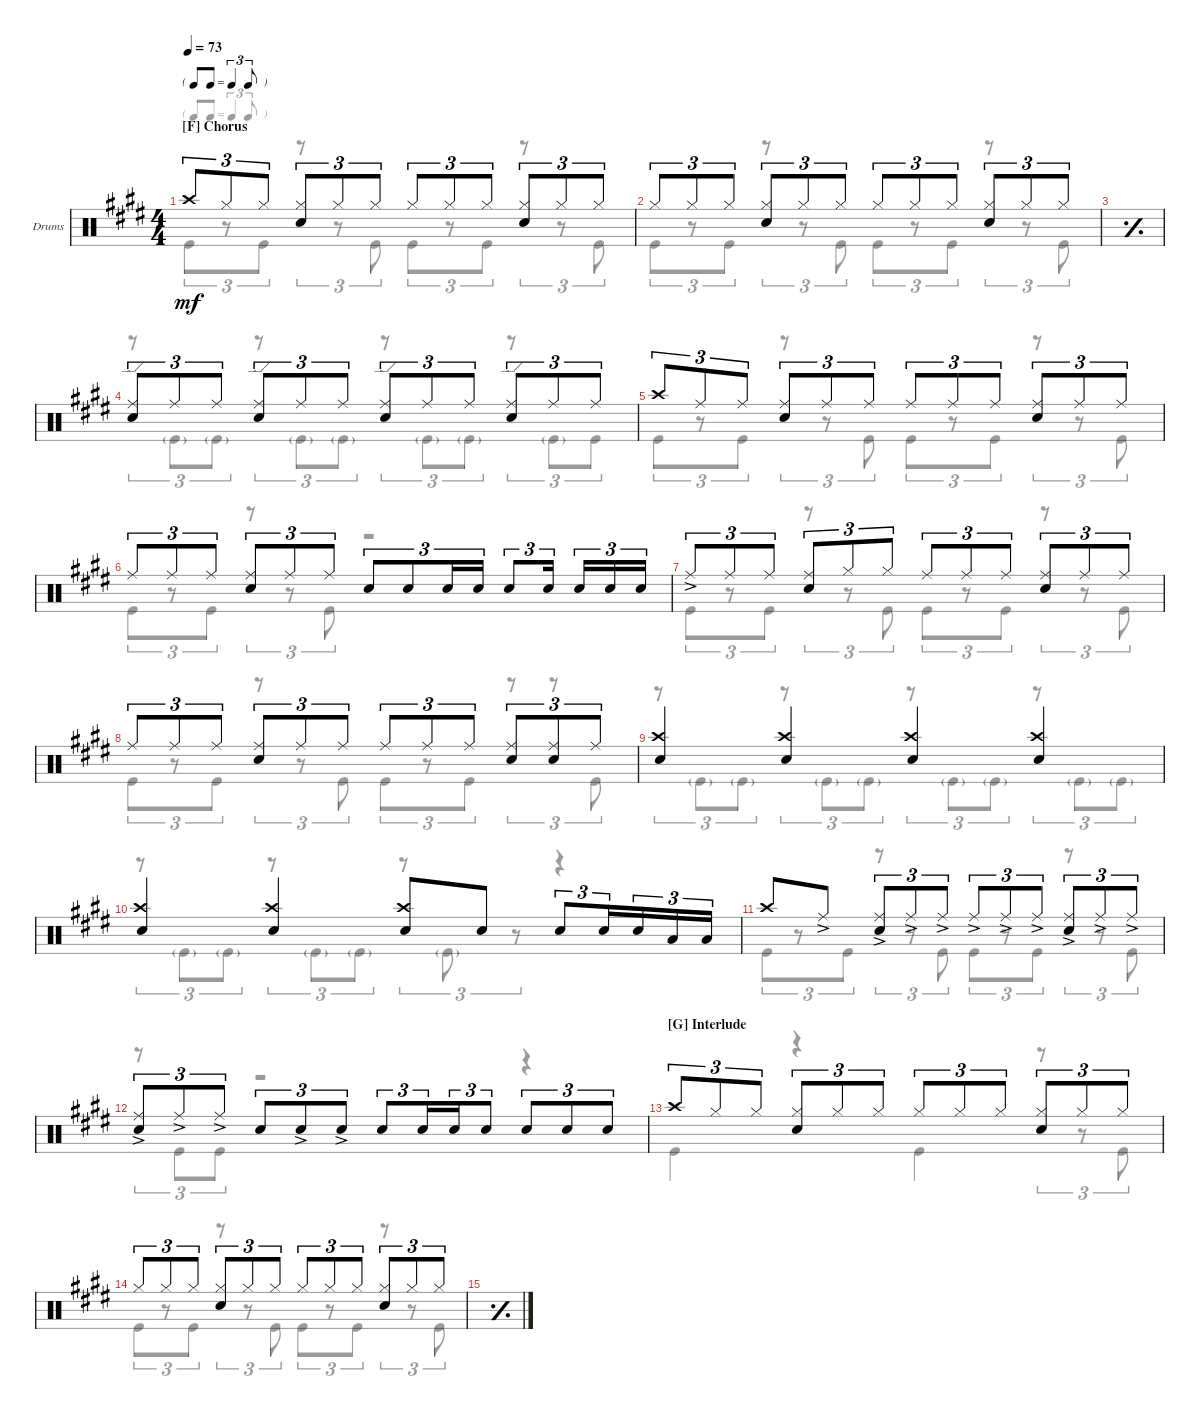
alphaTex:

\defaultSystemsLayout 4
\bracketExtendMode groupsimilarinstruments
\firstSystemTrackNameOrientation horizontal
\otherSystemsTrackNameOrientation horizontal
\track ("Drumkit" "Drums") {instrument percussion}
\staff {score}
\articulation defaults
\voice
\ts (4 4)
\tf triplet8th
\section ("F" "Chorus")
\tempo 73
\clef neutral
\ks e "Crash high (hit)".8{tu (3 2) dy mf} "Hi-Hat (closed)".8{tu (3 2)} "Hi-Hat (closed)".8{tu (3 2)}
("Hi-Hat (closed)" "Snare (hit) 2").8{tu (3 2)} "Hi-Hat (closed)".8{tu (3 2)} "Hi-Hat (closed)".8{tu (3 2)} "Hi-Hat (closed)".8{tu (3 2)} "Hi-Hat (closed)".8{tu (3 2)} "Hi-Hat (closed)".8{tu (3 2)} ("Hi-Hat (closed)" "Snare (hit) 2").8{tu (3 2)} "Hi-Hat (closed)".8{tu (3 2)} "Hi-Hat (closed)".8{tu (3 2)} |
"Hi-Hat (closed)".8{tu (3 2)} "Hi-Hat (closed)".8{tu (3 2)} "Hi-Hat (closed)".8{tu (3 2)} ("Hi-Hat (closed)" "Snare (hit) 2").8{tu (3 2)} "Hi-Hat (closed)".8{tu (3 2)} "Hi-Hat (closed)".8{tu (3 2)} "Hi-Hat (closed)".8{tu (3 2)} "Hi-Hat (closed)".8{tu (3 2)} "Hi-Hat (closed)".8{tu (3 2)} ("Hi-Hat (closed)" "Snare (hit) 2").8{tu (3 2)} "Hi-Hat (closed)".8{tu (3 2)} "Hi-Hat (closed)".8{tu (3 2)} |
\simile simple
|
\simile none
("Ride (edge)" "Snare (hit) 2").8{tu (3 2)} "Ride (middle)".8{tu (3 2)} "Ride (middle)".8{tu (3 2)} ("Ride (edge)" "Snare (hit) 2").8{tu (3 2)} "Ride (middle)".8{tu (3 2)} "Ride (middle)".8{tu (3 2)} ("Ride (edge)" "Snare (hit) 2").8{tu (3 2)} "Ride (middle)".8{tu (3 2)} "Ride (middle)".8{tu (3 2)} ("Ride (edge)" "Snare (hit) 2").8{tu (3 2)} "Ride (middle)".8{tu (3 2)} "Ride (middle)".8{tu (3 2)} |
"Crash high (hit)".8{tu (3 2)} "Ride (middle)".8{tu (3 2)} "Ride (middle)".8{tu (3 2)} ("Snare (hit) 2" "Ride (middle)").8{tu (3 2)} "Ride (middle)".8{tu (3 2)} "Ride (middle)".8{tu (3 2)} "Ride (middle)".8{tu (3 2)} "Ride (middle)".8{tu (3 2)} "Ride (middle)".8{tu (3 2)} ("Snare (hit) 2" "Ride (middle)").8{tu (3 2)} "Ride (middle)".8{tu (3 2)} "Ride (middle)".8{tu (3 2)} |
"Ride (middle)".8{tu (3 2)} "Ride (middle)".8{tu (3 2)} "Ride (middle)".8{tu (3 2)} ("Ride (middle)" "Snare (hit) 2").8{tu (3 2)} "Ride (middle)".8{tu (3 2)} "Ride (middle)".8{tu (3 2)} "Snare (hit) 2".8{tu (3 2)} "Snare (hit) 2".8{tu (3 2)} "Snare (hit) 2".16{tu (3 2)} "Snare (hit) 2".16{tu (3 2)} "Snare (hit) 2".8{tu (3 2)} "Snare (hit) 2".16{tu (3 2)} "Snare (hit) 2".16{tu (3 2)} "Snare (hit) 2".16{tu (3 2)} "Snare (hit) 2".16{tu (3 2)} |
"Ride (middle)"{ac}.8{tu (3 2)} "Ride (middle)".8{tu (3 2)} "Ride (middle)".8{tu (3 2)} ("Ride (middle)" "Snare (hit) 2").8{tu (3 2)} "Hi-Hat (closed)".8{tu (3 2)} "Hi-Hat (closed)".8{tu (3 2)} "Ride (middle)".8{tu (3 2)} "Ride (middle)".8{tu (3 2)} "Ride (middle)".8{tu (3 2)} ("Ride (middle)" "Snare (hit) 2").8{tu (3 2)} "Ride (middle)".8{tu (3 2)} "Ride (middle)".8{tu (3 2)} |
"Ride (middle)".8{tu (3 2)} "Ride (middle)".8{tu (3 2)} "Ride (middle)".8{tu (3 2)} ("Ride (middle)" "Snare (hit) 2").8{tu (3 2)} "Ride (middle)".8{tu (3 2)} "Ride (middle)".8{tu (3 2)} "Ride (middle)".8{tu (3 2)} "Ride (middle)".8{tu (3 2)} "Ride (middle)".8{tu (3 2)} ("Ride (middle)" "Snare (hit) 2").8{tu (3 2)} ("Snare (hit) 2" "Ride (middle)").8{tu (3 2)} "Ride (middle)".8{tu (3 2)} |
("Crash high (hit)" "Snare (hit) 2").4 ("Crash high (hit)" "Snare (hit) 2").4 ("Crash high (hit)" "Snare (hit) 2").4 ("Crash high (hit)" "Snare (hit) 2").4 |
("Crash high (hit)" "Snare (hit) 2").4 ("Crash high (hit)" "Snare (hit) 2").4 ("Crash high (hit)" "Snare (hit) 2").8{beam merge} "Snare (hit) 2".8{beam split} "Snare (hit) 2".8{tu (3 2)} "Snare (hit) 2".16{tu (3 2) beam merge} "Snare (hit) 2".16{tu (3 2)} "Low Tom (hit)".16{tu (3 2) beam merge} "Low Tom (hit)".16{tu (3 2)} |
"Crash high (hit)".8 "Ride (middle)"{ac}.8 ("Ride (middle)"{ac} "Snare (hit) 2").8{tu (3 2)} "Ride (middle)"{ac}.8{tu (3 2)} "Ride (middle)"{ac}.8{tu (3 2)} "Ride (middle)"{ac}.8{tu (3 2)} "Ride (middle)"{ac}.8{tu (3 2)} "Ride (middle)"{ac}.8{tu (3 2)} ("Ride (middle)"{ac} "Snare (hit) 2").8{tu (3 2)} "Ride (middle)"{ac}.8{tu (3 2)} "Ride (middle)"{ac}.8{tu (3 2)} |
("Ride (middle)"{ac} "Snare (hit) 2").8{tu (3 2)} "Ride (middle)"{ac}.8{tu (3 2)} "Ride (middle)"{ac}.8{tu (3 2)} "Snare (hit) 2".8{tu (3 2)} "Snare (hit) 2"{ac}.8{tu (3 2)} "Snare (hit) 2"{ac}.8{tu (3 2)} "Snare (hit) 2".8{tu (3 2) beam merge} "Snare (hit) 2".16{tu (3 2) beam merge} "Snare (hit) 2".16{tu (3 2)} "Snare (hit) 2".8{tu (3 2)} "Snare (hit) 2".8{tu (3 2)} "Snare (hit) 2".8{tu (3 2)} "Snare (hit) 2".8{tu (3 2)} |
\section ("G" "Interlude")
"Crash high (hit)".8{tu (3 2)} "Hi-Hat (closed)".8{tu (3 2)} "Hi-Hat (closed)".8{tu (3 2)} ("Hi-Hat (closed)" "Snare (hit) 2").8{tu (3 2)} "Hi-Hat (closed)".8{tu (3 2)} "Hi-Hat (closed)".8{tu (3 2)} "Hi-Hat (closed)".8{tu (3 2)} "Hi-Hat (closed)".8{tu (3 2)} "Hi-Hat (closed)".8{tu (3 2)} ("Hi-Hat (closed)" "Snare (hit) 2").8{tu (3 2)} "Hi-Hat (closed)".8{tu (3 2)} "Hi-Hat (closed)".8{tu (3 2)} |
"Hi-Hat (closed)".8{tu (3 2)} "Hi-Hat (closed)".8{tu (3 2)} "Hi-Hat (closed)".8{tu (3 2)} ("Hi-Hat (closed)" "Snare (hit) 2").8{tu (3 2)} "Hi-Hat (closed)".8{tu (3 2)} "Hi-Hat (closed)".8{tu (3 2)} "Hi-Hat (closed)".8{tu (3 2)} "Hi-Hat (closed)".8{tu (3 2)} "Hi-Hat (closed)".8{tu (3 2)} ("Hi-Hat (closed)" "Snare (hit) 2").8{tu (3 2)} "Hi-Hat (closed)".8{tu (3 2)} "Hi-Hat (closed)".8{tu (3 2)} |
\simile simple
|
\voice
\clef neutral
\ottava regular
\simile none
\ks e "Kick (hit)".8{tu (3 2) dy mf}
r.8{tu (3 2)} "Kick (hit)".8{tu (3 2)} r.8{tu (3 2)} r.8{tu (3 2)} "Kick (hit)".8{tu (3 2)} "Kick (hit)".8{tu (3 2)} r.8{tu (3 2)} "Kick (hit)".8{tu (3 2)} r.8{tu (3 2)} r.8{tu (3 2)} "Kick (hit)".8{tu (3 2)} |
"Kick (hit)".8{tu (3 2)} r.8{tu (3 2)} "Kick (hit)".8{tu (3 2)} r.8{tu (3 2)} r.8{tu (3 2)} "Kick (hit)".8{tu (3 2)} "Kick (hit)".8{tu (3 2)} r.8{tu (3 2)} "Kick (hit)".8{tu (3 2)} r.8{tu (3 2)} r.8{tu (3 2)} "Kick (hit)".8{tu (3 2)} |
\simile simple
|
\simile none
r.8{tu (3 2)} "Kick (hit)"{g}.8{tu (3 2)} "Kick (hit)"{g}.8{tu (3 2)} r.8{tu (3 2)} "Kick (hit)"{g}.8{tu (3 2)} "Kick (hit)"{g}.8{tu (3 2)} r.8{tu (3 2)} "Kick (hit)"{g}.8{tu (3 2)} "Kick (hit)"{g}.8{tu (3 2)} r.8{tu (3 2)} "Kick (hit)"{g}.8{tu (3 2)} "Kick (hit)".8{tu (3 2)} |
"Kick (hit)".8{tu (3 2)} r.8{tu (3 2)} "Kick (hit)".8{tu (3 2)} r.8{tu (3 2)} r.8{tu (3 2)} "Kick (hit)".8{tu (3 2)} "Kick (hit)".8{tu (3 2)} r.8{tu (3 2)} "Kick (hit)".8{tu (3 2)} r.8{tu (3 2)} r.8{tu (3 2)} "Kick (hit)".8{tu (3 2)} |
"Kick (hit)".8{tu (3 2)} r.8{tu (3 2)} "Kick (hit)".8{tu (3 2)} r.8{tu (3 2)} r.8{tu (3 2)} "Kick (hit)".8{tu (3 2)} r.2 |
"Kick (hit)".8{tu (3 2)} r.8{tu (3 2)} "Kick (hit)".8{tu (3 2)} r.8{tu (3 2)} r.8{tu (3 2)} "Kick (hit)".8{tu (3 2)} "Kick (hit)".8{tu (3 2)} r.8{tu (3 2)} "Kick (hit)".8{tu (3 2)} r.8{tu (3 2)} r.8{tu (3 2)} "Kick (hit)".8{tu (3 2)} |
"Kick (hit)".8{tu (3 2)} r.8{tu (3 2)} "Kick (hit)".8{tu (3 2)} r.8{tu (3 2)} r.8{tu (3 2)} "Kick (hit)".8{tu (3 2)} "Kick (hit)".8{tu (3 2)} r.8{tu (3 2)} "Kick (hit)".8{tu (3 2)} r.8{tu (3 2)} r.8{tu (3 2)} "Kick (hit)".8{tu (3 2)} |
r.8{tu (3 2)} "Kick (hit)"{g}.8{tu (3 2)} "Kick (hit)"{g}.8{tu (3 2)} r.8{tu (3 2)} "Kick (hit)"{g}.8{tu (3 2)} "Kick (hit)"{g}.8{tu (3 2)} r.8{tu (3 2)} "Kick (hit)"{g}.8{tu (3 2)} "Kick (hit)"{g}.8{tu (3 2)} r.8{tu (3 2)} "Kick (hit)"{g}.8{tu (3 2)} "Kick (hit)"{g}.8{tu (3 2)} |
r.8{tu (3 2)} "Kick (hit)"{g}.8{tu (3 2)} "Kick (hit)"{g}.8{tu (3 2)} r.8{tu (3 2)} "Kick (hit)"{g}.8{tu (3 2)} "Kick (hit)"{g}.8{tu (3 2)} r.8{tu (3 2)} "Kick (hit)"{g}.8{tu (3 2)} r.8{tu (3 2)} r.4 |
"Kick (hit)".8{tu (3 2)} r.8{tu (3 2)} "Kick (hit)".8{tu (3 2)} r.8{tu (3 2)} r.8{tu (3 2)} "Kick (hit)".8{tu (3 2)} "Kick (hit)".8{tu (3 2)} r.8{tu (3 2)} "Kick (hit)".8{tu (3 2)} r.8{tu (3 2)} r.8{tu (3 2)} "Kick (hit)".8{tu (3 2)} |
r.8{tu (3 2)} "Kick (hit)".8{tu (3 2)} "Kick (hit)".8{tu (3 2)} r.2 r.4 |
"Kick (hit)".4 r.4 "Kick (hit)".4 r.8{tu (3 2)} r.8{tu (3 2)} "Kick (hit)".8{tu (3 2)} |
"Kick (hit)".8{tu (3 2)} r.8{tu (3 2)} "Kick (hit)".8{tu (3 2)} r.8{tu (3 2)} r.8{tu (3 2)} "Kick (hit)".8{tu (3 2)} "Kick (hit)".8{tu (3 2)} r.8{tu (3 2)} "Kick (hit)".8{tu (3 2)} r.8{tu (3 2)} r.8{tu (3 2)} "Kick (hit)".8{tu (3 2)} |
\simile simple
|
